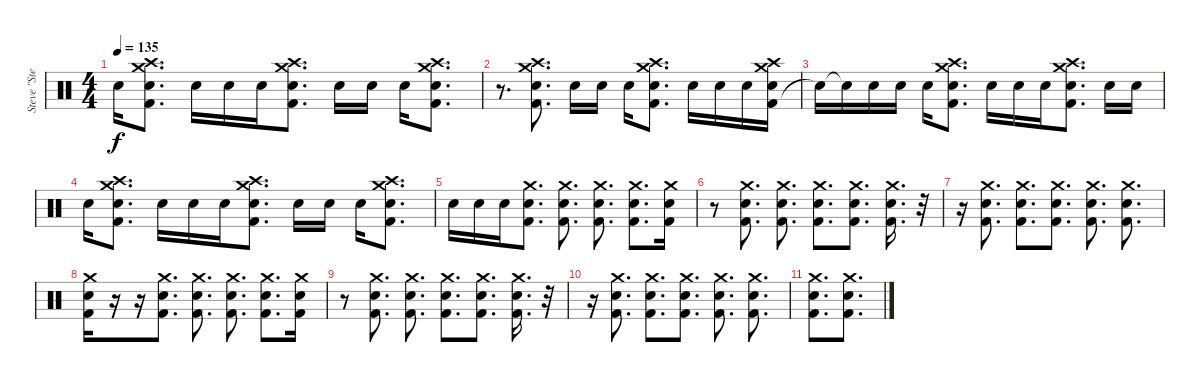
\track ("Steve \"Stevo 32\" Jocz" "Steve \"Ste") {instrument percussion}
\staff {score}
\articulation defaults
\ts (4 4)
\tempo 135
\clef neutral
\ks c "Electric Snare (hit)".16{dy f}
("Kick (hit) 2" "Snare (hit) 2" "Crash high (hit)" "Crash medium (hit)").8{d} "Electric Snare (hit)".16 "Electric Snare (hit)".16 "Electric Snare (hit)".16 ("Kick (hit) 2" "Snare (hit) 2" "Crash high (hit)" "Crash medium (hit)").8{d} "Electric Snare (hit)".16 "Electric Snare (hit)".16 "Electric Snare (hit)".16 ("Kick (hit) 2" "Snare (hit) 2" "Crash high (hit)" "Crash medium (hit)").8{d} |
r.8{d} ("Kick (hit) 2" "Snare (hit) 2" "Crash high (hit)" "Crash medium (hit)").8{d} "Electric Snare (hit)".16 "Electric Snare (hit)".16 "Electric Snare (hit)".16 ("Kick (hit) 2" "Snare (hit) 2" "Crash high (hit)" "Crash medium (hit)").8{d} "Electric Snare (hit)".16 "Electric Snare (hit)".16 "Electric Snare (hit)".16 ("Kick (hit) 2" "Snare (hit) 2" "Crash high (hit)" "Crash medium (hit)").16 |
"Electric Snare (hit)"{t}.16 "Electric Snare (hit)"{t}.16 "Electric Snare (hit)".16 "Electric Snare (hit)".16 "Electric Snare (hit)".16 ("Kick (hit) 2" "Snare (hit) 2" "Crash high (hit)" "Crash medium (hit)").8{d} "Electric Snare (hit)".16 "Electric Snare (hit)".16 "Electric Snare (hit)".16 ("Kick (hit) 2" "Snare (hit) 2" "Crash high (hit)" "Crash medium (hit)").8{d} "Electric Snare (hit)".16 "Electric Snare (hit)".16 |
"Electric Snare (hit)".16 ("Kick (hit) 2" "Snare (hit) 2" "Crash high (hit)" "Crash medium (hit)").8{d} "Electric Snare (hit)".16 "Electric Snare (hit)".16 "Electric Snare (hit)".16 ("Kick (hit) 2" "Snare (hit) 2" "Crash high (hit)" "Crash medium (hit)").8{d} "Electric Snare (hit)".16 "Electric Snare (hit)".16 "Electric Snare (hit)".16 ("Kick (hit) 2" "Snare (hit) 2" "Crash high (hit)" "Crash medium (hit)").8{d} |
"Electric Snare (hit)".16 "Electric Snare (hit)".16 "Electric Snare (hit)".16 ("Snare (hit) 2" "Kick (hit) 2" "Crash medium (hit)").8{d} ("Snare (hit) 2" "Kick (hit) 2" "Crash medium (hit)").8{d} ("Snare (hit) 2" "Kick (hit) 2" "Crash medium (hit)").8{d} ("Snare (hit) 2" "Kick (hit) 2" "Crash medium (hit)").8{d} ("Snare (hit) 2" "Kick (hit) 2" "Crash medium (hit)").16 |
r.8 ("Snare (hit) 2" "Kick (hit) 2" "Crash medium (hit)").8{d} ("Snare (hit) 2" "Kick (hit) 2" "Crash medium (hit)").8{d} ("Snare (hit) 2" "Kick (hit) 2" "Crash medium (hit)").8{d} ("Snare (hit) 2" "Kick (hit) 2" "Crash medium (hit)").8{d} ("Snare (hit) 2" "Kick (hit) 2" "Crash medium (hit)").16{d} r.32 |
r.16 ("Snare (hit) 2" "Kick (hit) 2" "Crash medium (hit)").8{d} ("Snare (hit) 2" "Kick (hit) 2" "Crash medium (hit)").8{d} ("Snare (hit) 2" "Kick (hit) 2" "Crash medium (hit)").8{d} ("Snare (hit) 2" "Kick (hit) 2" "Crash medium (hit)").8{d} ("Snare (hit) 2" "Kick (hit) 2" "Crash medium (hit)").8{d} |
("Snare (hit) 2" "Kick (hit) 2" "Crash medium (hit)").16 r.16 r.16 ("Snare (hit) 2" "Kick (hit) 2" "Crash medium (hit)").8{d} ("Snare (hit) 2" "Kick (hit) 2" "Crash medium (hit)").8{d} ("Snare (hit) 2" "Kick (hit) 2" "Crash medium (hit)").8{d} ("Snare (hit) 2" "Kick (hit) 2" "Crash medium (hit)").8{d} ("Snare (hit) 2" "Kick (hit) 2" "Crash medium (hit)").16 |
r.8 ("Snare (hit) 2" "Kick (hit) 2" "Crash medium (hit)").8{d} ("Snare (hit) 2" "Kick (hit) 2" "Crash medium (hit)").8{d} ("Snare (hit) 2" "Kick (hit) 2" "Crash medium (hit)").8{d} ("Snare (hit) 2" "Kick (hit) 2" "Crash medium (hit)").8{d} ("Snare (hit) 2" "Kick (hit) 2" "Crash medium (hit)").16{d} r.32 |
r.16 ("Snare (hit) 2" "Kick (hit) 2" "Crash medium (hit)").8{d} ("Snare (hit) 2" "Kick (hit) 2" "Crash medium (hit)").8{d} ("Snare (hit) 2" "Kick (hit) 2" "Crash medium (hit)").8{d} ("Snare (hit) 2" "Kick (hit) 2" "Crash medium (hit)").8{d} ("Snare (hit) 2" "Kick (hit) 2" "Crash medium (hit)").8{d} |
("Snare (hit) 2" "Kick (hit) 2" "Crash medium (hit)").8{d} ("Snare (hit) 2" "Kick (hit) 2" "Crash medium (hit)").8{d}
